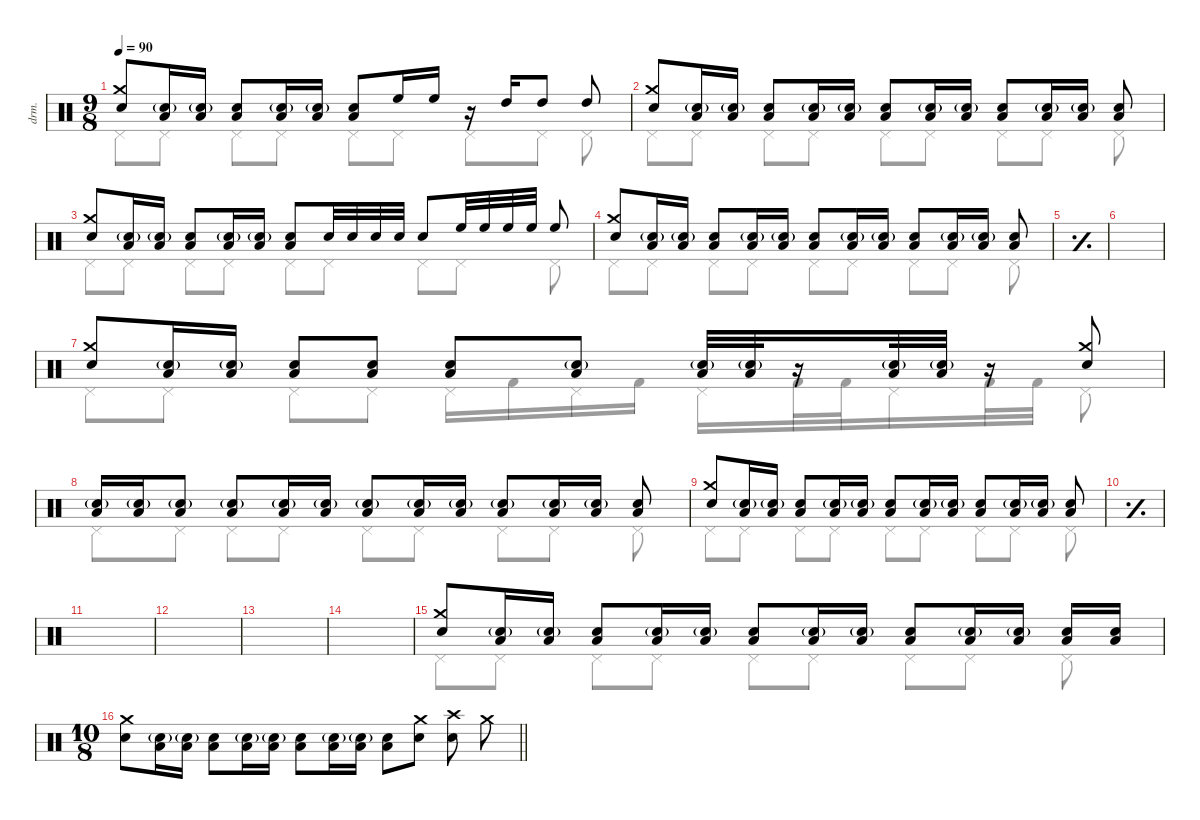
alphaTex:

\defaultSystemsLayout 4
\hideDynamics
\bracketExtendMode nobrackets
\track ("Drums" "drm.") {instrument percussion}
\staff {score}
\articulation defaults
\voice
\ts (9 8)
\tempo 90
\clef neutral
\scale
0.488794
\ks c
("Crash medium (hit)" "Snare (hit) 2").8{dy mf} ("Snare (hit) 2"{g} "Low Tom (hit)").16 ("Snare (hit) 2"{g} "Low Tom (hit)").16{beam split} ("Low Tom (hit)" "Snare (hit) 2").8{beam merge} ("Snare (hit) 2"{g} "Low Tom (hit)").16 ("Snare (hit) 2"{g} "Low Tom (hit)").16{beam split} ("Snare (hit) 2" "Low Tom (hit)").8 "High Floor Tom (hit)".16 "High Floor Tom (hit)".16 r.16 "High Tom (hit)".16 "High Tom (hit)".8{beam split} "High Tom (hit)".8 |
\scale
0.511207 ("Snare (hit) 2" "Crash medium (hit)").8 ("Snare (hit) 2"{g} "Low Tom (hit)").16 ("Snare (hit) 2"{g} "Low Tom (hit)").16{beam split} ("Snare (hit) 2" "Low Tom (hit)").8{beam merge} ("Low Tom (hit)" "Snare (hit) 2"{g}).16 ("Low Tom (hit)" "Snare (hit) 2"{g}).16{beam split} ("Snare (hit) 2" "Low Tom (hit)").8 ("Low Tom (hit)" "Snare (hit) 2"{g}).16 ("Low Tom (hit)" "Snare (hit) 2"{g}).16{beam split} ("Snare (hit) 2" "Low Tom (hit)").8 ("Low Tom (hit)" "Snare (hit) 2"{g}).16 ("Low Tom (hit)" "Snare (hit) 2"{g}).16{beam split} ("Low Tom (hit)" "Snare (hit) 2").8 |
\scale
0.488793 ("Crash medium (hit)" "Snare (hit) 2").8 ("Snare (hit) 2"{g} "Low Tom (hit)").16 ("Snare (hit) 2"{g} "Low Tom (hit)").16{beam split} ("Low Tom (hit)" "Snare (hit) 2").8{beam merge} ("Snare (hit) 2"{g} "Low Tom (hit)").16 ("Snare (hit) 2"{g} "Low Tom (hit)").16{beam split} ("Snare (hit) 2" "Low Tom (hit)").8 "Snare (hit) 2".32 "Snare (hit) 2".32 "Snare (hit) 2".32 "Snare (hit) 2".32 "Snare (hit) 2".8 "High Floor Tom (hit)".32 "High Floor Tom (hit)".32 "High Floor Tom (hit)".32 "High Floor Tom (hit)".32{beam split} "High Floor Tom (hit)".8 |
\scale
0.511207 ("Snare (hit) 2" "Crash medium (hit)").8 ("Snare (hit) 2"{g} "Low Tom (hit)").16 ("Snare (hit) 2"{g} "Low Tom (hit)").16{beam split} ("Snare (hit) 2" "Low Tom (hit)").8{beam merge} ("Low Tom (hit)" "Snare (hit) 2"{g}).16 ("Low Tom (hit)" "Snare (hit) 2"{g}).16{beam split} ("Snare (hit) 2" "Low Tom (hit)").8 ("Low Tom (hit)" "Snare (hit) 2"{g}).16 ("Low Tom (hit)" "Snare (hit) 2"{g}).16{beam split} ("Snare (hit) 2" "Low Tom (hit)").8 ("Low Tom (hit)" "Snare (hit) 2"{g}).16 ("Low Tom (hit)" "Snare (hit) 2"{g}).16{beam split} ("Low Tom (hit)" "Snare (hit) 2").8 |
\simile simple
\scale
0.488793 |
\scale
0.511207 |
\simile none
\scale
0.488793 ("Snare (hit) 2" "Crash medium (hit)").8 ("Snare (hit) 2"{g} "Low Tom (hit)").16 ("Snare (hit) 2"{g} "Low Tom (hit)").16{beam split} ("Snare (hit) 2" "Low Tom (hit)").8{beam merge} ("Snare (hit) 2" "Low Tom (hit)").8{beam split} ("Snare (hit) 2" "Low Tom (hit)").8 ("Snare (hit) 2"{g} "Low Tom (hit)").8 ("Low Tom (hit)" "Snare (hit) 2"{g}).32 ("Low Tom (hit)" "Snare (hit) 2"{g}).32{beam splitsecondary} r.16 ("Low Tom (hit)" "Snare (hit) 2"{g}).32 ("Low Tom (hit)" "Snare (hit) 2"{g}).32{beam split} r.16 ("Snare (hit) 2" "Crash medium (hit)").8 |
("Snare (hit) 2"{g} "Low Tom (hit)").16 ("Snare (hit) 2"{g} "Low Tom (hit)").16 ("Snare (hit) 2"{g} "Low Tom (hit)").8{beam split} ("Snare (hit) 2"{g} "Low Tom (hit)").8{beam merge} ("Snare (hit) 2"{g} "Low Tom (hit)").16 ("Snare (hit) 2"{g} "Low Tom (hit)").16{beam split} ("Snare (hit) 2"{g} "Low Tom (hit)").8{beam merge} ("Snare (hit) 2"{g} "Low Tom (hit)").16 ("Snare (hit) 2"{g} "Low Tom (hit)").16 ("Snare (hit) 2"{g} "Low Tom (hit)").8{beam merge} ("Snare (hit) 2"{g} "Low Tom (hit)").16 ("Snare (hit) 2"{g} "Low Tom (hit)").16{beam split} ("Low Tom (hit)" "Snare (hit) 2").8 |
("Snare (hit) 2" "Crash medium (hit)").8 ("Snare (hit) 2"{g} "Low Tom (hit)").16 ("Snare (hit) 2"{g} "Low Tom (hit)").16{beam split} ("Snare (hit) 2" "Low Tom (hit)").8{beam merge} ("Low Tom (hit)" "Snare (hit) 2"{g}).16 ("Low Tom (hit)" "Snare (hit) 2"{g}).16{beam split} ("Snare (hit) 2" "Low Tom (hit)").8 ("Low Tom (hit)" "Snare (hit) 2"{g}).16 ("Low Tom (hit)" "Snare (hit) 2"{g}).16{beam split} ("Snare (hit) 2" "Low Tom (hit)").8 ("Low Tom (hit)" "Snare (hit) 2"{g}).16 ("Low Tom (hit)" "Snare (hit) 2"{g}).16{beam split} ("Low Tom (hit)" "Snare (hit) 2").8 |
\simile simple
|
|
|
|
\scale
0.511205 |
\simile none
\scale
0.488795 ("Snare (hit) 2" "Crash medium (hit)").8 ("Snare (hit) 2"{g} "Low Tom (hit)").16 ("Snare (hit) 2"{g} "Low Tom (hit)").16{beam split} ("Snare (hit) 2" "Low Tom (hit)").8{beam merge} ("Low Tom (hit)" "Snare (hit) 2"{g}).16 ("Low Tom (hit)" "Snare (hit) 2"{g}).16{beam split} ("Snare (hit) 2" "Low Tom (hit)").8 ("Low Tom (hit)" "Snare (hit) 2"{g}).16 ("Low Tom (hit)" "Snare (hit) 2"{g}).16{beam split} ("Snare (hit) 2" "Low Tom (hit)").8 ("Low Tom (hit)" "Snare (hit) 2"{g}).16 ("Low Tom (hit)" "Snare (hit) 2"{g}).16{beam split} ("Low Tom (hit)" "Snare (hit) 2").16 ("Low Tom (hit)" "Snare (hit) 2").16 |
\ts (10 8)
\beaming (8 3 3 3 1)
\scale
0.511207
\barLineRight lightlight
("Snare (hit) 2" "Crash medium (hit)").8 ("Snare (hit) 2"{g} "Low Tom (hit)").16 ("Snare (hit) 2"{g} "Low Tom (hit)").16{beam split} ("Snare (hit) 2" "Low Tom (hit)").8{beam merge} ("Low Tom (hit)" "Snare (hit) 2"{g}).16 ("Low Tom (hit)" "Snare (hit) 2"{g}).16{beam split} ("Snare (hit) 2" "Low Tom (hit)").8 ("Low Tom (hit)" "Snare (hit) 2"{g}).16 ("Low Tom (hit)" "Snare (hit) 2"{g}).16{beam split} ("Snare (hit) 2" "Low Tom (hit)").8 ("Snare (hit) 2" "Crash medium (hit)").8{beam split} ("Crash high (hit)" "Snare (hit) 2").8 "Crash medium (hit)".8
\voice
\clef neutral
\ottava regular
\simile none
\scale
0.488794
\ks c "Pedal Hi-Hat (hit)".8{dy mf} "Pedal Hi-Hat (hit)".8{beam split} "Pedal Hi-Hat (hit)".8{beam merge} "Pedal Hi-Hat (hit)".8{beam split} "Pedal Hi-Hat (hit)".8 "Pedal Hi-Hat (hit)".8 "Pedal Hi-Hat (hit)".8 "Pedal Hi-Hat (hit)".8{beam split} "Pedal Hi-Hat (hit)".8
|
\scale
0.511207 "Pedal Hi-Hat (hit)".8 "Pedal Hi-Hat (hit)".8{beam split} "Pedal Hi-Hat (hit)".8{beam merge} "Pedal Hi-Hat (hit)".8{beam split} "Pedal Hi-Hat (hit)".8 "Pedal Hi-Hat (hit)".8 "Pedal Hi-Hat (hit)".8 "Pedal Hi-Hat (hit)".8{beam split} "Pedal Hi-Hat (hit)".8 |
\scale
0.488793 "Pedal Hi-Hat (hit)".8 "Pedal Hi-Hat (hit)".8{beam split} "Pedal Hi-Hat (hit)".8{beam merge} "Pedal Hi-Hat (hit)".8{beam split} "Pedal Hi-Hat (hit)".8 "Pedal Hi-Hat (hit)".8 "Pedal Hi-Hat (hit)".8 "Pedal Hi-Hat (hit)".8{beam split} "Pedal Hi-Hat (hit)".8 |
\scale
0.511207 "Pedal Hi-Hat (hit)".8 "Pedal Hi-Hat (hit)".8{beam split} "Pedal Hi-Hat (hit)".8{beam merge} "Pedal Hi-Hat (hit)".8{beam split} "Pedal Hi-Hat (hit)".8 "Pedal Hi-Hat (hit)".8 "Pedal Hi-Hat (hit)".8 "Pedal Hi-Hat (hit)".8{beam split} "Pedal Hi-Hat (hit)".8 |
\simile simple
\scale
0.488793 |
\scale
0.511207 |
\simile none
\scale
0.488793 "Pedal Hi-Hat (hit)".8 "Pedal Hi-Hat (hit)".8{beam split} "Pedal Hi-Hat (hit)".8{beam merge} "Pedal Hi-Hat (hit)".8{beam split} "Pedal Hi-Hat (hit)".16 "Kick (hit) 2".16 "Pedal Hi-Hat (hit)".16 "Kick (hit) 2".16 "Pedal Hi-Hat (hit)".16 "Kick (hit) 2".32 "Kick (hit) 2".32 "Pedal Hi-Hat (hit)".16 "Kick (hit) 2".32 "Kick (hit) 2".32{beam split} "Pedal Hi-Hat (hit)".8 |
"Pedal Hi-Hat (hit)".8 "Pedal Hi-Hat (hit)".8{beam split} "Pedal Hi-Hat (hit)".8{beam merge} "Pedal Hi-Hat (hit)".8{beam split} "Pedal Hi-Hat (hit)".8 "Pedal Hi-Hat (hit)".8 "Pedal Hi-Hat (hit)".8 "Pedal Hi-Hat (hit)".8{beam split} "Pedal Hi-Hat (hit)".8 |
"Pedal Hi-Hat (hit)".8 "Pedal Hi-Hat (hit)".8{beam split} "Pedal Hi-Hat (hit)".8{beam merge} "Pedal Hi-Hat (hit)".8{beam split} "Pedal Hi-Hat (hit)".8 "Pedal Hi-Hat (hit)".8 "Pedal Hi-Hat (hit)".8 "Pedal Hi-Hat (hit)".8{beam split} "Pedal Hi-Hat (hit)".8 |
\simile simple
|
|
|
|
\scale
0.511205 |
\simile none
\scale
0.488795 "Pedal Hi-Hat (hit)".8 "Pedal Hi-Hat (hit)".8{beam split} "Pedal Hi-Hat (hit)".8{beam merge} "Pedal Hi-Hat (hit)".8{beam split} "Pedal Hi-Hat (hit)".8 "Pedal Hi-Hat (hit)".8 "Pedal Hi-Hat (hit)".8 "Pedal Hi-Hat (hit)".8{beam split} "Pedal Hi-Hat (hit)".8 |
\scale
0.511207
\barLineRight lightlight
